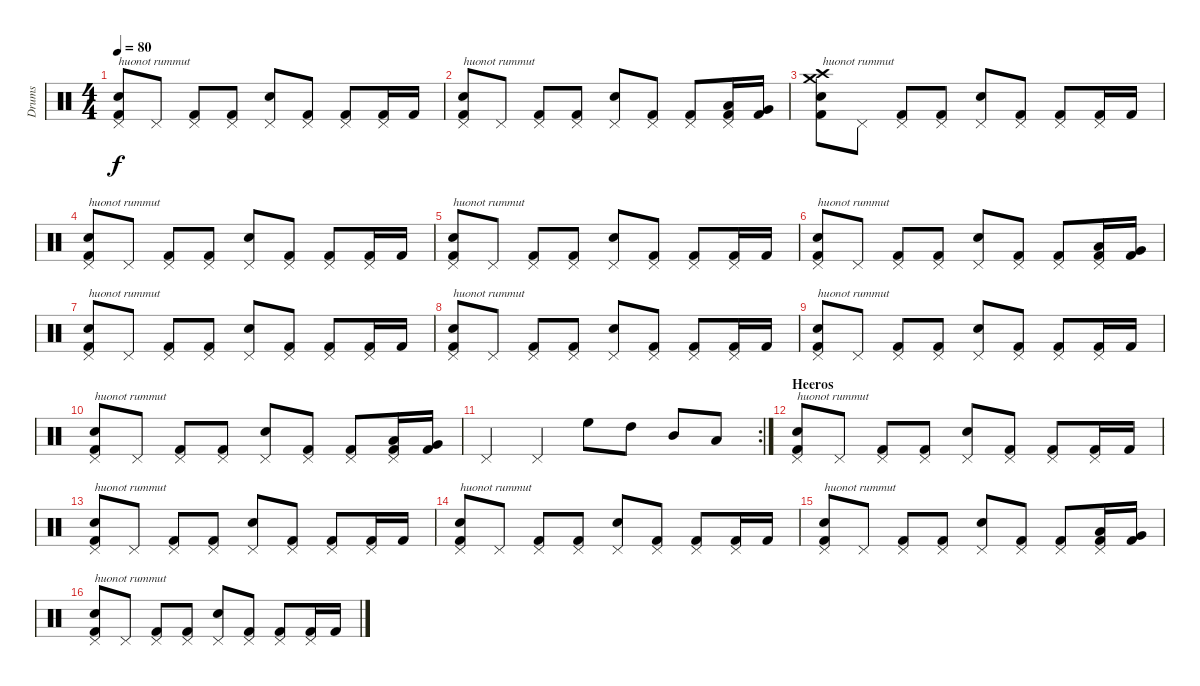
\track ("Drums" "Drums") {instrument percussion}
\staff {score}
\articulation defaults
\ts (4 4)
\tempo 80
\clef neutral
\ks c
("Pedal Hi-Hat (hit)" "Snare (hit) 2" "Kick (hit) 2").8{txt "huonot rummut" dy f} "Pedal Hi-Hat (hit)".8 ("Pedal Hi-Hat (hit)" "Kick (hit) 2").8 ("Pedal Hi-Hat (hit)" "Kick (hit) 2").8 ("Pedal Hi-Hat (hit)" "Snare (hit) 2").8 ("Pedal Hi-Hat (hit)" "Kick (hit) 2").8 ("Pedal Hi-Hat (hit)" "Kick (hit) 2").8 ("Pedal Hi-Hat (hit)" "Kick (hit) 2").16 "Kick (hit) 2".16 |
("Pedal Hi-Hat (hit)" "Snare (hit) 2" "Kick (hit) 2").8{txt "huonot rummut"} "Pedal Hi-Hat (hit)".8 ("Pedal Hi-Hat (hit)" "Kick (hit) 2").8 ("Pedal Hi-Hat (hit)" "Kick (hit) 2").8 ("Pedal Hi-Hat (hit)" "Snare (hit) 2").8 ("Pedal Hi-Hat (hit)" "Kick (hit) 2").8 ("Pedal Hi-Hat (hit)" "Kick (hit) 2").8 ("Pedal Hi-Hat (hit)" "Low Tom (hit)" "Kick (hit) 2").16 ("Very Low Tom (hit)" "Kick (hit) 2").16 |
("Crash medium (hit)" "Crash high (hit)" "Snare (hit) 2" "Kick (hit) 2").8{txt "huonot rummut"} "Pedal Hi-Hat (hit)".8 ("Pedal Hi-Hat (hit)" "Kick (hit) 2").8 ("Pedal Hi-Hat (hit)" "Kick (hit) 2").8 ("Pedal Hi-Hat (hit)" "Snare (hit) 2").8 ("Pedal Hi-Hat (hit)" "Kick (hit) 2").8 ("Pedal Hi-Hat (hit)" "Kick (hit) 2").8 ("Pedal Hi-Hat (hit)" "Kick (hit) 2").16 "Kick (hit) 2".16 |
("Pedal Hi-Hat (hit)" "Snare (hit) 2" "Kick (hit) 2").8{txt "huonot rummut"} "Pedal Hi-Hat (hit)".8 ("Pedal Hi-Hat (hit)" "Kick (hit) 2").8 ("Pedal Hi-Hat (hit)" "Kick (hit) 2").8 ("Pedal Hi-Hat (hit)" "Snare (hit) 2").8 ("Pedal Hi-Hat (hit)" "Kick (hit) 2").8 ("Pedal Hi-Hat (hit)" "Kick (hit) 2").8 ("Pedal Hi-Hat (hit)" "Kick (hit) 2").16 "Kick (hit) 2".16 |
("Pedal Hi-Hat (hit)" "Snare (hit) 2" "Kick (hit) 2").8{txt "huonot rummut"} "Pedal Hi-Hat (hit)".8 ("Pedal Hi-Hat (hit)" "Kick (hit) 2").8 ("Pedal Hi-Hat (hit)" "Kick (hit) 2").8 ("Pedal Hi-Hat (hit)" "Snare (hit) 2").8 ("Pedal Hi-Hat (hit)" "Kick (hit) 2").8 ("Pedal Hi-Hat (hit)" "Kick (hit) 2").8 ("Pedal Hi-Hat (hit)" "Kick (hit) 2").16 "Kick (hit) 2".16 |
("Pedal Hi-Hat (hit)" "Snare (hit) 2" "Kick (hit) 2").8{txt "huonot rummut"} "Pedal Hi-Hat (hit)".8 ("Pedal Hi-Hat (hit)" "Kick (hit) 2").8 ("Pedal Hi-Hat (hit)" "Kick (hit) 2").8 ("Pedal Hi-Hat (hit)" "Snare (hit) 2").8 ("Pedal Hi-Hat (hit)" "Kick (hit) 2").8 ("Pedal Hi-Hat (hit)" "Kick (hit) 2").8 ("Pedal Hi-Hat (hit)" "Low Tom (hit)" "Kick (hit) 2").16 ("Very Low Tom (hit)" "Kick (hit) 2").16 |
("Pedal Hi-Hat (hit)" "Snare (hit) 2" "Kick (hit) 2").8{txt "huonot rummut"} "Pedal Hi-Hat (hit)".8 ("Pedal Hi-Hat (hit)" "Kick (hit) 2").8 ("Pedal Hi-Hat (hit)" "Kick (hit) 2").8 ("Pedal Hi-Hat (hit)" "Snare (hit) 2").8 ("Pedal Hi-Hat (hit)" "Kick (hit) 2").8 ("Pedal Hi-Hat (hit)" "Kick (hit) 2").8 ("Pedal Hi-Hat (hit)" "Kick (hit) 2").16 "Kick (hit) 2".16 |
("Pedal Hi-Hat (hit)" "Snare (hit) 2" "Kick (hit) 2").8{txt "huonot rummut"} "Pedal Hi-Hat (hit)".8 ("Pedal Hi-Hat (hit)" "Kick (hit) 2").8 ("Pedal Hi-Hat (hit)" "Kick (hit) 2").8 ("Pedal Hi-Hat (hit)" "Snare (hit) 2").8 ("Pedal Hi-Hat (hit)" "Kick (hit) 2").8 ("Pedal Hi-Hat (hit)" "Kick (hit) 2").8 ("Pedal Hi-Hat (hit)" "Kick (hit) 2").16 "Kick (hit) 2".16 |
("Pedal Hi-Hat (hit)" "Snare (hit) 2" "Kick (hit) 2").8{txt "huonot rummut"} "Pedal Hi-Hat (hit)".8 ("Pedal Hi-Hat (hit)" "Kick (hit) 2").8 ("Pedal Hi-Hat (hit)" "Kick (hit) 2").8 ("Pedal Hi-Hat (hit)" "Snare (hit) 2").8 ("Pedal Hi-Hat (hit)" "Kick (hit) 2").8 ("Pedal Hi-Hat (hit)" "Kick (hit) 2").8 ("Pedal Hi-Hat (hit)" "Kick (hit) 2").16 "Kick (hit) 2".16 |
("Pedal Hi-Hat (hit)" "Snare (hit) 2" "Kick (hit) 2").8{txt "huonot rummut"} "Pedal Hi-Hat (hit)".8 ("Pedal Hi-Hat (hit)" "Kick (hit) 2").8 ("Pedal Hi-Hat (hit)" "Kick (hit) 2").8 ("Pedal Hi-Hat (hit)" "Snare (hit) 2").8 ("Pedal Hi-Hat (hit)" "Kick (hit) 2").8 ("Pedal Hi-Hat (hit)" "Kick (hit) 2").8 ("Pedal Hi-Hat (hit)" "Low Tom (hit)" "Kick (hit) 2").16 ("Very Low Tom (hit)" "Kick (hit) 2").16 |
\rc 2 "Pedal Hi-Hat (hit)".4 "Pedal Hi-Hat (hit)".4 "High Floor Tom (hit)".8 "High Tom (hit)".8 "Mid Tom (hit)".8 "Low Tom (hit)".8
|
\section ("" "Heeros")
("Pedal Hi-Hat (hit)" "Snare (hit) 2" "Kick (hit) 2").8{txt "huonot rummut"} "Pedal Hi-Hat (hit)".8 ("Pedal Hi-Hat (hit)" "Kick (hit) 2").8 ("Pedal Hi-Hat (hit)" "Kick (hit) 2").8 ("Pedal Hi-Hat (hit)" "Snare (hit) 2").8 ("Pedal Hi-Hat (hit)" "Kick (hit) 2").8 ("Pedal Hi-Hat (hit)" "Kick (hit) 2").8 ("Pedal Hi-Hat (hit)" "Kick (hit) 2").16 "Kick (hit) 2".16 |
("Pedal Hi-Hat (hit)" "Snare (hit) 2" "Kick (hit) 2").8{txt "huonot rummut"} "Pedal Hi-Hat (hit)".8 ("Pedal Hi-Hat (hit)" "Kick (hit) 2").8 ("Pedal Hi-Hat (hit)" "Kick (hit) 2").8 ("Pedal Hi-Hat (hit)" "Snare (hit) 2").8 ("Pedal Hi-Hat (hit)" "Kick (hit) 2").8 ("Pedal Hi-Hat (hit)" "Kick (hit) 2").8 ("Pedal Hi-Hat (hit)" "Kick (hit) 2").16 "Kick (hit) 2".16 |
("Pedal Hi-Hat (hit)" "Snare (hit) 2" "Kick (hit) 2").8{txt "huonot rummut"} "Pedal Hi-Hat (hit)".8 ("Pedal Hi-Hat (hit)" "Kick (hit) 2").8 ("Pedal Hi-Hat (hit)" "Kick (hit) 2").8 ("Pedal Hi-Hat (hit)" "Snare (hit) 2").8 ("Pedal Hi-Hat (hit)" "Kick (hit) 2").8 ("Pedal Hi-Hat (hit)" "Kick (hit) 2").8 ("Pedal Hi-Hat (hit)" "Kick (hit) 2").16 "Kick (hit) 2".16 |
("Pedal Hi-Hat (hit)" "Snare (hit) 2" "Kick (hit) 2").8{txt "huonot rummut"} "Pedal Hi-Hat (hit)".8 ("Pedal Hi-Hat (hit)" "Kick (hit) 2").8 ("Pedal Hi-Hat (hit)" "Kick (hit) 2").8 ("Pedal Hi-Hat (hit)" "Snare (hit) 2").8 ("Pedal Hi-Hat (hit)" "Kick (hit) 2").8 ("Pedal Hi-Hat (hit)" "Kick (hit) 2").8 ("Pedal Hi-Hat (hit)" "Low Tom (hit)" "Kick (hit) 2").16 ("Very Low Tom (hit)" "Kick (hit) 2").16 |
("Pedal Hi-Hat (hit)" "Snare (hit) 2" "Kick (hit) 2").8{txt "huonot rummut"} "Pedal Hi-Hat (hit)".8 ("Pedal Hi-Hat (hit)" "Kick (hit) 2").8 ("Pedal Hi-Hat (hit)" "Kick (hit) 2").8 ("Pedal Hi-Hat (hit)" "Snare (hit) 2").8 ("Pedal Hi-Hat (hit)" "Kick (hit) 2").8 ("Pedal Hi-Hat (hit)" "Kick (hit) 2").8 ("Pedal Hi-Hat (hit)" "Kick (hit) 2").16 "Kick (hit) 2".16
